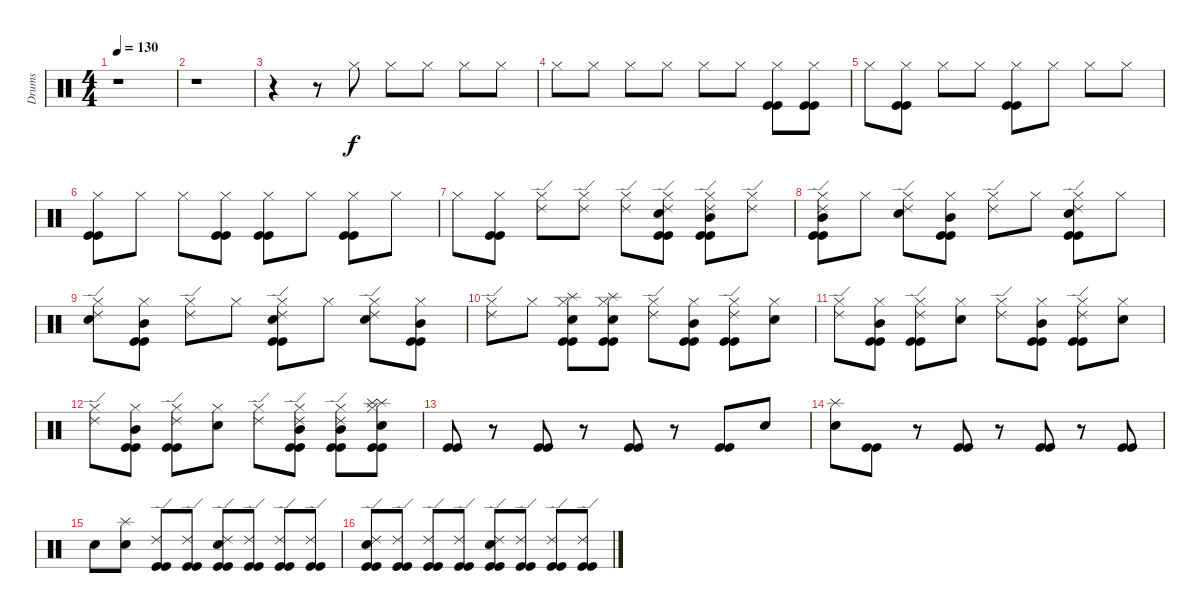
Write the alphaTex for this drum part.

\track ("Drums" "Drums") {instrument percussion}
\staff {score}
\articulation defaults
\ts (4 4)
\tempo 130
\clef neutral
\ks c
r.1{dy f} |
r.1 |
r.4 r.8 "Hi-Hat (closed)".8 "Hi-Hat (closed)".8 "Hi-Hat (closed)".8 "Hi-Hat (closed)".8 "Hi-Hat (closed)".8 |
"Hi-Hat (closed)".8 "Hi-Hat (closed)".8 "Hi-Hat (closed)".8 "Hi-Hat (closed)".8 "Hi-Hat (closed)".8 "Hi-Hat (closed)".8 ("Kick (hit)" "Hi-Hat (closed)" "Kick (hit)").8 ("Kick (hit)" "Hi-Hat (closed)" "Kick (hit)").8 |
"Hi-Hat (closed)".8 ("Kick (hit)" "Hi-Hat (closed)" "Kick (hit)").8 "Hi-Hat (closed)".8 "Hi-Hat (closed)".8 ("Kick (hit)" "Hi-Hat (closed)" "Kick (hit)").8 "Hi-Hat (closed)".8 "Hi-Hat (closed)".8 "Hi-Hat (closed)".8 |
("Kick (hit)" "Hi-Hat (closed)" "Kick (hit)").8 "Hi-Hat (closed)".8 "Hi-Hat (closed)".8 ("Kick (hit)" "Hi-Hat (closed)" "Kick (hit)").8 ("Kick (hit)" "Hi-Hat (closed)" "Kick (hit)").8 "Hi-Hat (closed)".8 ("Kick (hit)" "Hi-Hat (closed)" "Kick (hit)").8 "Hi-Hat (closed)".8 |
"Hi-Hat (closed)".8 ("Kick (hit)" "Hi-Hat (closed)" "Kick (hit)").8 ("Ride (edge) 2" "Hi-Hat (closed)").8 ("Ride (edge) 2" "Hi-Hat (closed)").8 ("Ride (edge) 2" "Hi-Hat (closed)").8 ("Ride (edge) 2" "Snare (hit) 2" "Kick (hit)" "Hi-Hat (closed)" "Kick (hit)").8 ("Ride (edge) 2" "Mid Tom (hit)" "Kick (hit)" "Hi-Hat (closed)" "Kick (hit)").8 ("Ride (edge) 2" "Hi-Hat (closed)").8 |
("Ride (edge) 2" "Mid Tom (hit)" "Kick (hit)" "Hi-Hat (closed)" "Kick (hit)").8 "Hi-Hat (closed)".8 ("Ride (edge) 2" "Snare (hit) 2" "Hi-Hat (closed)").8 ("Mid Tom (hit)" "Kick (hit)" "Hi-Hat (closed)" "Kick (hit)").8 ("Ride (edge) 2" "Hi-Hat (closed)").8 "Hi-Hat (closed)".8 ("Ride (edge) 2" "Snare (hit) 2" "Kick (hit)" "Hi-Hat (closed)" "Kick (hit)").8 "Hi-Hat (closed)".8 |
("Ride (edge) 2" "Snare (hit) 2" "Hi-Hat (closed)").8 ("Mid Tom (hit)" "Kick (hit)" "Hi-Hat (closed)" "Kick (hit)").8 ("Ride (edge) 2" "Hi-Hat (closed)").8 "Hi-Hat (closed)".8 ("Ride (edge) 2" "Snare (hit) 2" "Kick (hit)" "Hi-Hat (closed)" "Kick (hit)").8 "Hi-Hat (closed)".8 ("Ride (edge) 2" "Snare (hit) 2" "Hi-Hat (closed)").8 ("Mid Tom (hit)" "Kick (hit)" "Hi-Hat (closed)" "Kick (hit)").8 |
("Ride (edge) 2" "Hi-Hat (closed)").8 "Hi-Hat (closed)".8 ("Splash (hit)" "Snare (hit) 2" "Kick (hit)" "Hi-Hat (closed)" "Kick (hit)").8 ("Splash (hit)" "Snare (hit) 2" "Kick (hit)" "Hi-Hat (closed)" "Kick (hit)").8 ("Ride (edge) 2" "Hi-Hat (closed)").8 ("Mid Tom (hit)" "Kick (hit)" "Hi-Hat (closed)" "Kick (hit)").8 ("Ride (edge) 2" "Kick (hit)" "Hi-Hat (closed)" "Kick (hit)").8 ("Snare (hit) 2" "Hi-Hat (closed)").8 |
("Ride (edge) 2" "Hi-Hat (closed)").8 ("Mid Tom (hit)" "Kick (hit)" "Hi-Hat (closed)" "Kick (hit)").8 ("Ride (edge) 2" "Kick (hit)" "Hi-Hat (closed)" "Kick (hit)").8 ("Snare (hit) 2" "Hi-Hat (closed)").8 ("Ride (edge) 2" "Hi-Hat (closed)").8 ("Mid Tom (hit)" "Kick (hit)" "Hi-Hat (closed)" "Kick (hit)").8 ("Ride (edge) 2" "Kick (hit)" "Hi-Hat (closed)" "Kick (hit)").8 ("Snare (hit) 2" "Hi-Hat (closed)").8 |
("Ride (edge) 2" "Hi-Hat (closed)").8 ("Mid Tom (hit)" "Kick (hit)" "Hi-Hat (closed)" "Kick (hit)").8 ("Ride (edge) 2" "Kick (hit)" "Hi-Hat (closed)" "Kick (hit)").8 ("Snare (hit) 2" "Hi-Hat (closed)").8 ("Ride (edge) 2" "Hi-Hat (closed)").8 ("Ride (edge) 2" "Mid Tom (hit)" "Kick (hit)" "Hi-Hat (closed)" "Kick (hit)").8 ("Ride (edge) 2" "Mid Tom (hit)" "Kick (hit)" "Hi-Hat (closed)" "Kick (hit)").8 ("Splash (hit)" "Splash (hit)" "Snare (hit) 2" "Kick (hit)" "Hi-Hat (closed)" "Kick (hit)").8 |
("Kick (hit)" "Kick (hit)").8 r.8 ("Kick (hit)" "Kick (hit)").8 r.8 ("Kick (hit)" "Kick (hit)").8 r.8 ("Kick (hit)" "Kick (hit)").8 "Snare (hit) 2".8 |
("Splash (hit)" "Snare (hit) 2").8 ("Kick (hit)" "Kick (hit)").8 r.8 ("Kick (hit)" "Kick (hit)").8 r.8 ("Kick (hit)" "Kick (hit)").8 r.8 ("Kick (hit)" "Kick (hit)").8 |
"Snare (hit) 2".8 ("Splash (hit)" "Snare (hit) 2").8 ("Ride (edge) 2" "Kick (hit)" "Kick (hit)").8 ("Ride (edge) 2" "Kick (hit)" "Kick (hit)").8 ("Ride (edge) 2" "Snare (hit) 2" "Kick (hit)" "Kick (hit)").8 ("Ride (edge) 2" "Kick (hit)" "Kick (hit)").8 ("Ride (edge) 2" "Kick (hit)" "Kick (hit)").8 ("Ride (edge) 2" "Kick (hit)" "Kick (hit)").8 |
("Ride (edge) 2" "Snare (hit) 2" "Kick (hit)" "Kick (hit)").8 ("Ride (edge) 2" "Kick (hit)" "Kick (hit)").8 ("Ride (edge) 2" "Kick (hit)" "Kick (hit)").8 ("Ride (edge) 2" "Kick (hit)" "Kick (hit)").8 ("Ride (edge) 2" "Snare (hit) 2" "Kick (hit)" "Kick (hit)").8 ("Ride (edge) 2" "Kick (hit)" "Kick (hit)").8 ("Ride (edge) 2" "Kick (hit)" "Kick (hit)").8 ("Ride (edge) 2" "Kick (hit)" "Kick (hit)").8
